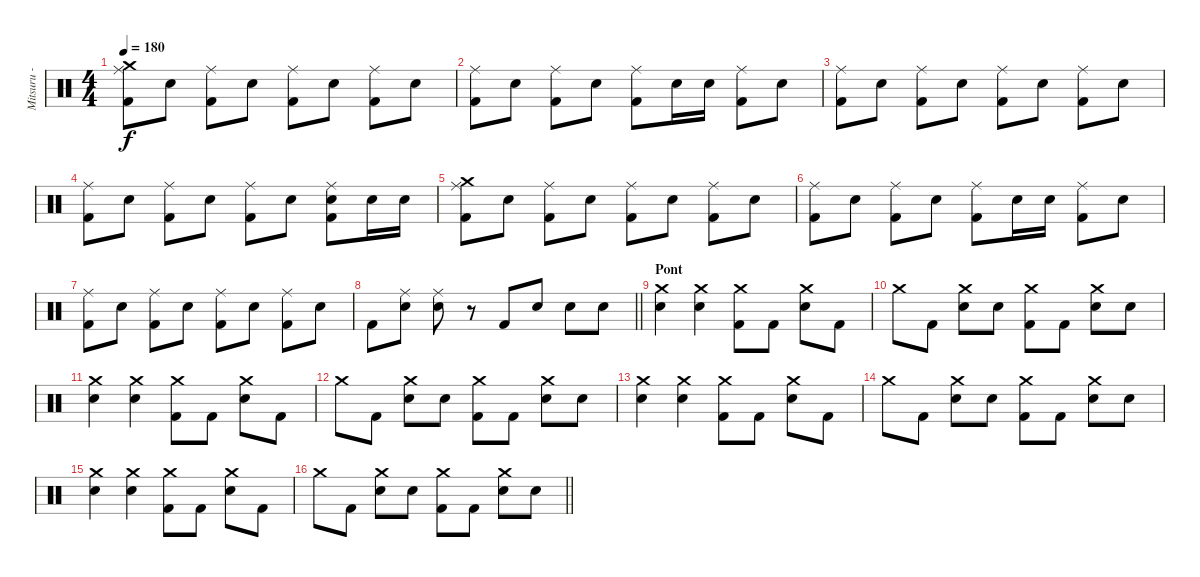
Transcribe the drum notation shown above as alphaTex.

\track ("Mitsuru - Batterie" "Mitsuru - ") {instrument percussion}
\staff {score}
\articulation defaults
\ts (4 4)
\tempo 180
\clef neutral
\ks c
("Crash medium (hit)" "Ride (middle)" "Kick (hit) 2").8{dy f} "Electric Snare (hit)".8 ("Ride (middle)" "Kick (hit) 2").8 "Electric Snare (hit)".8 ("Ride (middle)" "Kick (hit) 2").8 "Electric Snare (hit)".8 ("Ride (middle)" "Kick (hit) 2").8 "Electric Snare (hit)".8 |
("Ride (middle)" "Kick (hit) 2").8 "Electric Snare (hit)".8 ("Ride (middle)" "Kick (hit) 2").8 "Electric Snare (hit)".8 ("Ride (middle)" "Kick (hit) 2").8 "Electric Snare (hit)".16 "Electric Snare (hit)".16 ("Ride (middle)" "Kick (hit) 2").8 "Electric Snare (hit)".8 |
("Ride (middle)" "Kick (hit) 2").8 "Electric Snare (hit)".8 ("Ride (middle)" "Kick (hit) 2").8 "Electric Snare (hit)".8 ("Ride (middle)" "Kick (hit) 2").8 "Electric Snare (hit)".8 ("Ride (middle)" "Kick (hit) 2").8 "Electric Snare (hit)".8 |
("Ride (middle)" "Kick (hit) 2").8 "Electric Snare (hit)".8 ("Ride (middle)" "Kick (hit) 2").8 "Electric Snare (hit)".8 ("Ride (middle)" "Kick (hit) 2").8 "Electric Snare (hit)".8 ("Ride (middle)" "Electric Snare (hit)" "Kick (hit) 2").8 "Electric Snare (hit)".16 "Electric Snare (hit)".16 |
("Crash medium (hit)" "Ride (middle)" "Kick (hit) 2").8 "Electric Snare (hit)".8 ("Ride (middle)" "Kick (hit) 2").8 "Electric Snare (hit)".8 ("Ride (middle)" "Kick (hit) 2").8 "Electric Snare (hit)".8 ("Ride (middle)" "Kick (hit) 2").8 "Electric Snare (hit)".8 |
("Ride (middle)" "Kick (hit) 2").8 "Electric Snare (hit)".8 ("Ride (middle)" "Kick (hit) 2").8 "Electric Snare (hit)".8 ("Ride (middle)" "Kick (hit) 2").8 "Electric Snare (hit)".16 "Electric Snare (hit)".16 ("Ride (middle)" "Kick (hit) 2").8 "Electric Snare (hit)".8 |
("Ride (middle)" "Kick (hit) 2").8 "Electric Snare (hit)".8 ("Ride (middle)" "Kick (hit) 2").8 "Electric Snare (hit)".8 ("Ride (middle)" "Kick (hit) 2").8 "Electric Snare (hit)".8 ("Ride (middle)" "Kick (hit) 2").8 "Electric Snare (hit)".8 |
\barLineRight lightlight "Kick (hit) 2".8
("Ride (middle)" "Electric Snare (hit)").8 ("Ride (middle)" "Electric Snare (hit)").8 r.8 "Kick (hit) 2".8 "Electric Snare (hit)".8 "Electric Snare (hit)".8 "Electric Snare (hit)".8 |
\section ("" "Pont")
("Crash medium (hit)" "Electric Snare (hit)").4 ("Crash medium (hit)" "Electric Snare (hit)").4 ("Crash medium (hit)" "Kick (hit) 2").8 "Kick (hit) 2".8 ("Crash medium (hit)" "Electric Snare (hit)").8 "Kick (hit) 2".8 |
"Crash medium (hit)".8 "Kick (hit) 2".8 ("Crash medium (hit)" "Electric Snare (hit)").8 "Electric Snare (hit)".8 ("Crash medium (hit)" "Kick (hit) 2").8 "Kick (hit) 2".8 ("Crash medium (hit)" "Electric Snare (hit)").8 "Electric Snare (hit)".8 |
("Crash medium (hit)" "Electric Snare (hit)").4 ("Crash medium (hit)" "Electric Snare (hit)").4 ("Crash medium (hit)" "Kick (hit) 2").8 "Kick (hit) 2".8 ("Crash medium (hit)" "Electric Snare (hit)").8 "Kick (hit) 2".8 |
"Crash medium (hit)".8 "Kick (hit) 2".8 ("Crash medium (hit)" "Electric Snare (hit)").8 "Electric Snare (hit)".8 ("Crash medium (hit)" "Kick (hit) 2").8 "Kick (hit) 2".8 ("Crash medium (hit)" "Electric Snare (hit)").8 "Electric Snare (hit)".8 |
("Crash medium (hit)" "Electric Snare (hit)").4 ("Crash medium (hit)" "Electric Snare (hit)").4 ("Crash medium (hit)" "Kick (hit) 2").8 "Kick (hit) 2".8 ("Crash medium (hit)" "Electric Snare (hit)").8 "Kick (hit) 2".8 |
"Crash medium (hit)".8 "Kick (hit) 2".8 ("Crash medium (hit)" "Electric Snare (hit)").8 "Electric Snare (hit)".8 ("Crash medium (hit)" "Kick (hit) 2").8 "Kick (hit) 2".8 ("Crash medium (hit)" "Electric Snare (hit)").8 "Electric Snare (hit)".8 |
("Crash medium (hit)" "Electric Snare (hit)").4 ("Crash medium (hit)" "Electric Snare (hit)").4 ("Crash medium (hit)" "Kick (hit) 2").8 "Kick (hit) 2".8 ("Crash medium (hit)" "Electric Snare (hit)").8 "Kick (hit) 2".8 |
\barLineRight lightlight "Crash medium (hit)".8 "Kick (hit) 2".8
("Crash medium (hit)" "Electric Snare (hit)").8 "Electric Snare (hit)".8 ("Crash medium (hit)" "Kick (hit) 2").8 "Kick (hit) 2".8 ("Crash medium (hit)" "Electric Snare (hit)").8 "Electric Snare (hit)".8
